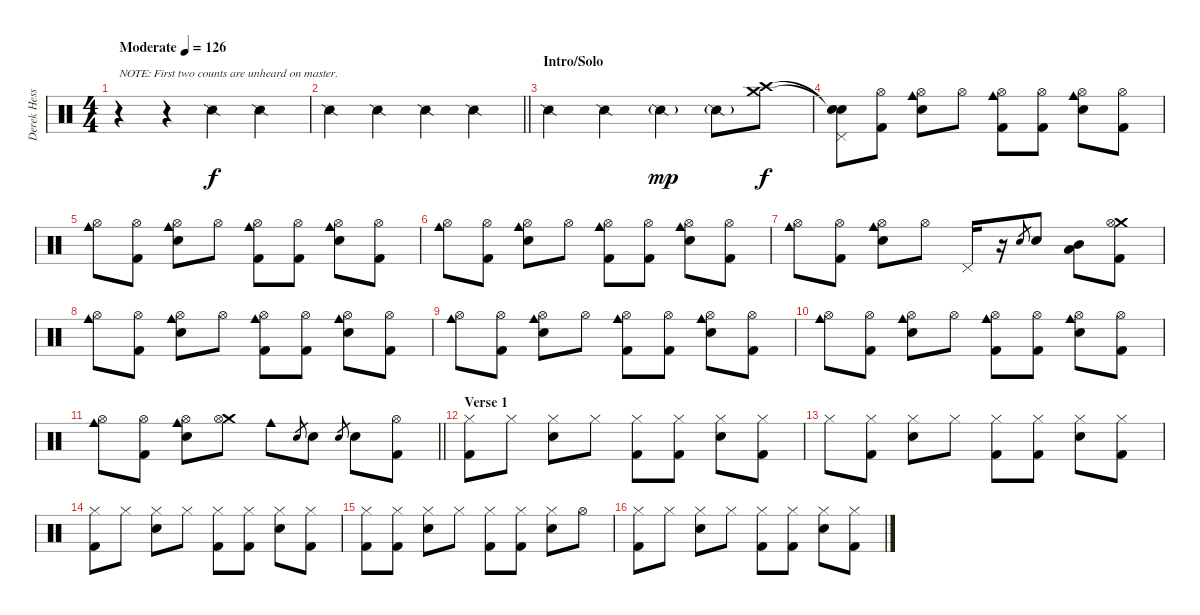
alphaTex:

\track ("Derek Hess (Drums and Percussion)" "Derek Hess") {instrument percussion}
\staff {score}
\articulation defaults
\ts (4 4)
\tempo (126 "Moderate")
\clef neutral
\ks c
r.4{txt "NOTE: First two counts are unheard on master." dy f} r.4 "Snare (side stick) 2".4 "Snare (side stick) 2".4 |
\barLineRight lightlight "Snare (side stick) 2".4 "Snare (side stick) 2".4 "Snare (side stick) 2".4 "Snare (side stick) 2".4
|
\section ("" "Intro/Solo")
"Snare (side stick) 2".4 "Snare (side stick) 2".4 "Snare (side stick) 2"{g}.4{dy mp} "Snare (side stick) 2"{g}.8 ("Crash high (hit)" "Crash medium (hit)").8{dy f} |
("Snare (hit)"{t} "Snare (hit)"{t} "Pedal Hi-Hat (hit)").8 ("Hi-Hat (open)" "Kick (hit) 2").8 ("Electric Snare (hit)" "Hi-Hat (open)" "Cowbell medium (hit)").8 "Hi-Hat (open)".8 ("Hi-Hat (open)" "Cowbell medium (hit)" "Kick (hit) 2").8 ("Hi-Hat (open)" "Kick (hit) 2").8 ("Electric Snare (hit)" "Hi-Hat (open)" "Cowbell medium (hit)").8 ("Hi-Hat (open)" "Kick (hit) 2").8 |
("Hi-Hat (open)" "Cowbell medium (hit)").8 ("Hi-Hat (open)" "Kick (hit) 2").8 ("Electric Snare (hit)" "Hi-Hat (open)" "Cowbell medium (hit)").8 "Hi-Hat (open)".8 ("Hi-Hat (open)" "Cowbell medium (hit)" "Kick (hit) 2").8 ("Hi-Hat (open)" "Kick (hit) 2").8 ("Electric Snare (hit)" "Hi-Hat (open)" "Cowbell medium (hit)").8 ("Hi-Hat (open)" "Kick (hit) 2").8 |
("Hi-Hat (open)" "Cowbell medium (hit)").8 ("Hi-Hat (open)" "Kick (hit) 2").8 ("Electric Snare (hit)" "Hi-Hat (open)" "Cowbell medium (hit)").8 "Hi-Hat (open)".8 ("Hi-Hat (open)" "Cowbell medium (hit)" "Kick (hit) 2").8 ("Hi-Hat (open)" "Kick (hit) 2").8 ("Electric Snare (hit)" "Hi-Hat (open)" "Cowbell medium (hit)").8 ("Hi-Hat (open)" "Kick (hit) 2").8 |
("Hi-Hat (open)" "Cowbell medium (hit)").8 ("Hi-Hat (open)" "Kick (hit) 2").8 ("Electric Snare (hit)" "Hi-Hat (open)" "Cowbell medium (hit)").8 "Hi-Hat (open)".8 "Pedal Hi-Hat (hit)".16 r.16 "Electric Snare (hit)".8{gr} "Electric Snare (hit)".8 ("Low Tom (hit)" "Mid Tom (hit)").8 ("Crash medium (hit)" "Hi-Hat (open)" "Kick (hit) 2").8 |
("Hi-Hat (open)" "Cowbell medium (hit)").8 ("Hi-Hat (open)" "Kick (hit) 2").8 ("Electric Snare (hit)" "Hi-Hat (open)" "Cowbell medium (hit)").8 "Hi-Hat (open)".8 ("Hi-Hat (open)" "Cowbell medium (hit)" "Kick (hit) 2").8 ("Hi-Hat (open)" "Kick (hit) 2").8 ("Electric Snare (hit)" "Hi-Hat (open)" "Cowbell medium (hit)").8 ("Hi-Hat (open)" "Kick (hit) 2").8 |
("Hi-Hat (open)" "Cowbell medium (hit)").8 ("Hi-Hat (open)" "Kick (hit) 2").8 ("Electric Snare (hit)" "Hi-Hat (open)" "Cowbell medium (hit)").8 "Hi-Hat (open)".8 ("Hi-Hat (open)" "Cowbell medium (hit)" "Kick (hit) 2").8 ("Hi-Hat (open)" "Kick (hit) 2").8 ("Electric Snare (hit)" "Hi-Hat (open)" "Cowbell medium (hit)").8 ("Hi-Hat (open)" "Kick (hit) 2").8 |
("Hi-Hat (open)" "Cowbell medium (hit)").8 ("Hi-Hat (open)" "Kick (hit) 2").8 ("Electric Snare (hit)" "Hi-Hat (open)" "Cowbell medium (hit)").8 "Hi-Hat (open)".8 ("Hi-Hat (open)" "Cowbell medium (hit)" "Kick (hit) 2").8 ("Hi-Hat (open)" "Kick (hit) 2").8 ("Electric Snare (hit)" "Hi-Hat (open)" "Cowbell medium (hit)").8 ("Hi-Hat (open)" "Kick (hit) 2").8 |
\barLineRight lightlight
("Hi-Hat (open)" "Cowbell medium (hit)").8 ("Hi-Hat (open)" "Kick (hit) 2").8 ("Electric Snare (hit)" "Hi-Hat (open)" "Cowbell medium (hit)").8 ("Crash medium (hit)" "Hi-Hat (open)").8 "Cowbell medium (hit)".8 "Electric Snare (hit)".8{gr} "Electric Snare (hit)".8 "Electric Snare (hit)".8{gr} "Electric Snare (hit)".8 ("Hi-Hat (open)" "Kick (hit) 2").8 |
\section ("" "Verse 1")
("Hi-Hat (closed)" "Kick (hit) 2").8 "Hi-Hat (closed)".8 ("Electric Snare (hit)" "Hi-Hat (closed)").8 "Hi-Hat (closed)".8 ("Hi-Hat (closed)" "Kick (hit) 2").8 ("Hi-Hat (closed)" "Kick (hit) 2").8 ("Electric Snare (hit)" "Hi-Hat (closed)").8 ("Hi-Hat (closed)" "Kick (hit) 2").8 |
"Hi-Hat (closed)".8 ("Hi-Hat (closed)" "Kick (hit) 2").8 ("Electric Snare (hit)" "Hi-Hat (closed)").8 "Hi-Hat (closed)".8 ("Hi-Hat (closed)" "Kick (hit) 2").8 ("Hi-Hat (closed)" "Kick (hit) 2").8 ("Electric Snare (hit)" "Hi-Hat (closed)").8 ("Hi-Hat (closed)" "Kick (hit) 2").8 |
("Hi-Hat (closed)" "Kick (hit) 2").8 "Hi-Hat (closed)".8 ("Electric Snare (hit)" "Hi-Hat (closed)").8 "Hi-Hat (closed)".8 ("Hi-Hat (closed)" "Kick (hit) 2").8 ("Hi-Hat (closed)" "Kick (hit) 2").8 ("Electric Snare (hit)" "Hi-Hat (closed)").8 ("Hi-Hat (closed)" "Kick (hit) 2").8 |
("Hi-Hat (closed)" "Kick (hit) 2").8 ("Hi-Hat (closed)" "Kick (hit) 2").8 ("Electric Snare (hit)" "Hi-Hat (closed)").8 "Hi-Hat (closed)".8 ("Hi-Hat (closed)" "Kick (hit) 2").8 ("Hi-Hat (closed)" "Kick (hit) 2").8 ("Electric Snare (hit)" "Hi-Hat (closed)").8 "Hi-Hat (open)".8 |
("Hi-Hat (closed)" "Kick (hit) 2").8 "Hi-Hat (closed)".8 ("Electric Snare (hit)" "Hi-Hat (closed)").8 "Hi-Hat (closed)".8 ("Hi-Hat (closed)" "Kick (hit) 2").8 ("Hi-Hat (closed)" "Kick (hit) 2").8 ("Electric Snare (hit)" "Hi-Hat (closed)").8 ("Hi-Hat (closed)" "Kick (hit) 2").8
